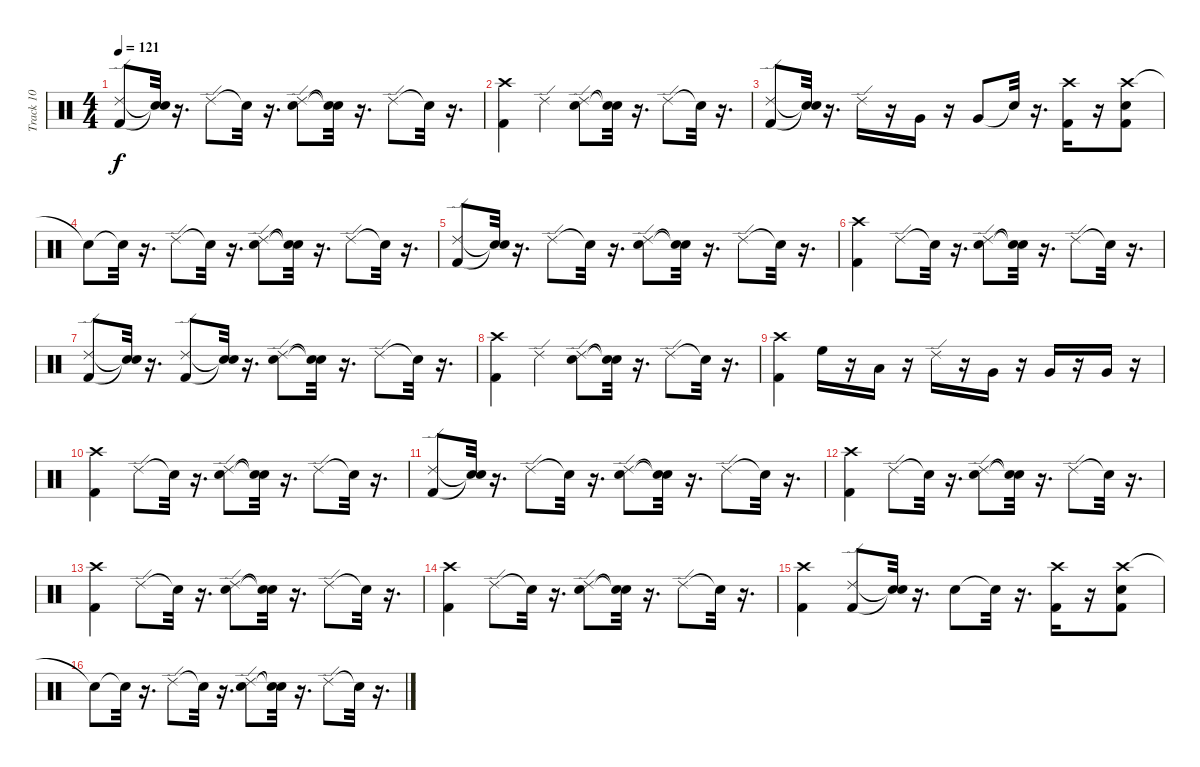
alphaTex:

\track ("Track 10" "Track 10") {instrument percussion}
\staff {score}
\articulation defaults
\ts (4 4)
\tempo 121
\clef neutral
\ks c
("Ride (edge) 2" "Kick (hit) 2").8{dy f} ("Snare (hit)"{t} "Snare (hit)"{t}).32 r.16{d} "Ride (edge) 2".8 "Snare (hit)"{t}.32 r.16{d} ("Ride (edge) 2" "Snare (hit) 2").8 ("Snare (hit)"{t} "Snare (hit)"{t}).32 r.16{d} "Ride (edge) 2".8 "Snare (hit)"{t}.32 r.16{d} |
("Crash high (hit)" "Kick (hit) 2").4 "Ride (edge) 2".4 ("Ride (edge) 2" "Snare (hit) 2").8 ("Snare (hit)"{t} "Snare (hit)"{t}).32 r.16{d} "Ride (edge) 2".8 "Snare (hit)"{t}.32 r.16{d} |
("Ride (edge) 2" "Kick (hit) 2").8 ("Snare (hit)"{t} "Snare (hit)"{t}).32 r.16{d} "Ride (edge) 2".16 r.16 "Very Low Tom (hit)".16 r.16 "Very Low Tom (hit)".8 "Snare (hit)"{t}.32 r.16{d} ("Crash high (hit)" "Kick (hit) 2").16 r.16 ("Crash high (hit)" "Snare (hit) 2" "Kick (hit) 2").8 |
"Snare (hit)"{t}.8 "Snare (hit)"{t}.32 r.16{d} "Ride (edge) 2".8 "Snare (hit)"{t}.32 r.16{d} ("Ride (edge) 2" "Snare (hit) 2").8 ("Snare (hit)"{t} "Snare (hit)"{t}).32 r.16{d} "Ride (edge) 2".8 "Snare (hit)"{t}.32 r.16{d} |
("Ride (edge) 2" "Kick (hit) 2").8 ("Snare (hit)"{t} "Snare (hit)"{t}).32 r.16{d} "Ride (edge) 2".8 "Snare (hit)"{t}.32 r.16{d} ("Ride (edge) 2" "Snare (hit) 2").8 ("Snare (hit)"{t} "Snare (hit)"{t}).32 r.16{d} "Ride (edge) 2".8 "Snare (hit)"{t}.32 r.16{d} |
("Crash high (hit)" "Kick (hit) 2").4 "Ride (edge) 2".8 "Snare (hit)"{t}.32 r.16{d} ("Ride (edge) 2" "Snare (hit) 2").8 ("Snare (hit)"{t} "Snare (hit)"{t}).32 r.16{d} "Ride (edge) 2".8 "Snare (hit)"{t}.32 r.16{d} |
("Ride (edge) 2" "Kick (hit) 2").8 ("Snare (hit)"{t} "Snare (hit)"{t}).32 r.16{d} ("Ride (edge) 2" "Kick (hit) 2").8 ("Snare (hit)"{t} "Snare (hit)"{t}).32 r.16{d} ("Ride (edge) 2" "Snare (hit) 2").8 ("Snare (hit)"{t} "Snare (hit)"{t}).32 r.16{d} "Ride (edge) 2".8 "Snare (hit)"{t}.32 r.16{d} |
("Crash high (hit)" "Kick (hit) 2").4 "Ride (edge) 2".4 ("Ride (edge) 2" "Snare (hit) 2").8 ("Snare (hit)"{t} "Snare (hit)"{t}).32 r.16{d} "Ride (edge) 2".8 "Snare (hit)"{t}.32 r.16{d} |
("Crash high (hit)" "Kick (hit) 2").4 "High Floor Tom (hit)".16 r.16 "Low Tom (hit)".16 r.16 "Ride (edge) 2".16 r.16 "Very Low Tom (hit)".16 r.16 "Very Low Tom (hit)".16 r.16 "Very Low Tom (hit)".16 r.16 |
("Crash high (hit)" "Kick (hit) 2").4 "Ride (edge) 2".8 "Snare (hit)"{t}.32 r.16{d} ("Ride (edge) 2" "Snare (hit) 2").8 ("Snare (hit)"{t} "Snare (hit)"{t}).32 r.16{d} "Ride (edge) 2".8 "Snare (hit)"{t}.32 r.16{d} |
("Ride (edge) 2" "Kick (hit) 2").8 ("Snare (hit)"{t} "Snare (hit)"{t}).32 r.16{d} "Ride (edge) 2".8 "Snare (hit)"{t}.32 r.16{d} ("Ride (edge) 2" "Snare (hit) 2").8 ("Snare (hit)"{t} "Snare (hit)"{t}).32 r.16{d} "Ride (edge) 2".8 "Snare (hit)"{t}.32 r.16{d} |
("Crash high (hit)" "Kick (hit) 2").4 "Ride (edge) 2".8 "Snare (hit)"{t}.32 r.16{d} ("Ride (edge) 2" "Snare (hit) 2").8 ("Snare (hit)"{t} "Snare (hit)"{t}).32 r.16{d} "Ride (edge) 2".8 "Snare (hit)"{t}.32 r.16{d} |
("Crash high (hit)" "Kick (hit) 2").4 "Ride (edge) 2".8 "Snare (hit)"{t}.32 r.16{d} ("Ride (edge) 2" "Snare (hit) 2").8 ("Snare (hit)"{t} "Snare (hit)"{t}).32 r.16{d} "Ride (edge) 2".8 "Snare (hit)"{t}.32 r.16{d} |
("Crash high (hit)" "Kick (hit) 2").4 "Ride (edge) 2".8 "Snare (hit)"{t}.32 r.16{d} ("Ride (edge) 2" "Snare (hit) 2").8 ("Snare (hit)"{t} "Snare (hit)"{t}).32 r.16{d} "Ride (edge) 2".8 "Snare (hit)"{t}.32 r.16{d} |
("Crash high (hit)" "Kick (hit) 2").4 ("Ride (edge) 2" "Kick (hit) 2").8 ("Snare (hit)"{t} "Snare (hit)"{t}).32 r.16{d} "Snare (hit) 2".8 "Snare (hit)"{t}.32 r.16{d} ("Crash high (hit)" "Kick (hit) 2").16 r.16 ("Crash high (hit)" "Snare (hit) 2" "Kick (hit) 2").8 |
"Snare (hit)"{t}.8 "Snare (hit)"{t}.32 r.16{d} "Ride (edge) 2".8 "Snare (hit)"{t}.32 r.16{d} ("Ride (edge) 2" "Snare (hit) 2").8 ("Snare (hit)"{t} "Snare (hit)"{t}).32 r.16{d} "Ride (edge) 2".8 "Snare (hit)"{t}.32 r.16{d}
